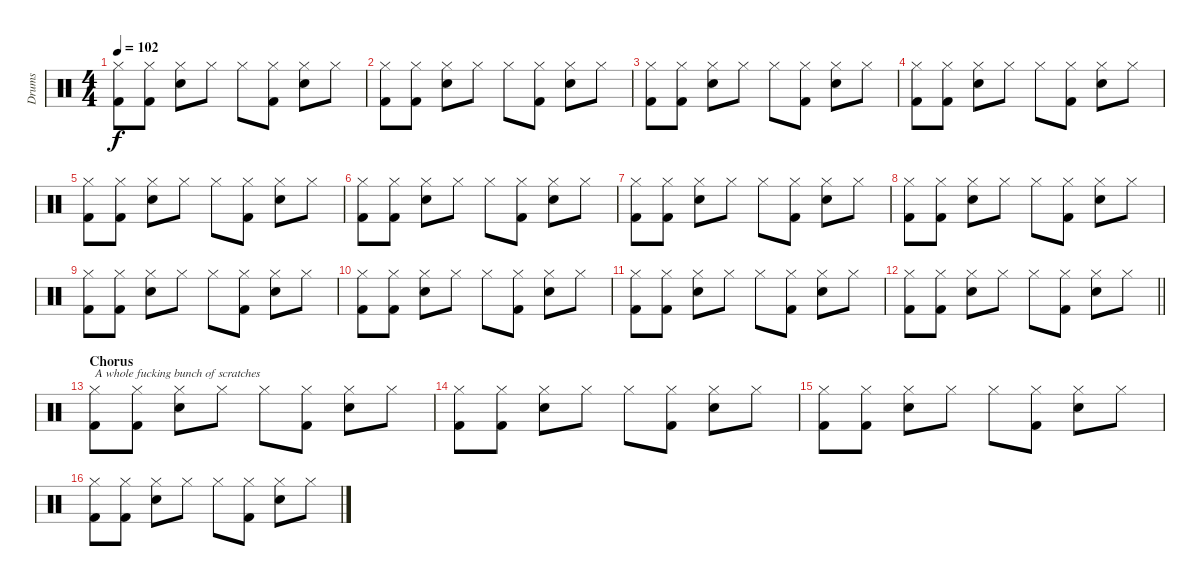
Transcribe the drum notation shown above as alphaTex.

\track ("Drums" "Drums") {instrument percussion}
\staff {score}
\articulation defaults
\ts (4 4)
\tempo 102
\clef neutral
\ks c
("Hi-Hat (closed)" "Kick (hit) 2").8{dy f} ("Hi-Hat (closed)" "Kick (hit) 2").8 ("Hi-Hat (closed)" "Snare (hit) 2").8 "Hi-Hat (closed)".8 "Hi-Hat (closed)".8 ("Hi-Hat (closed)" "Kick (hit) 2").8 ("Hi-Hat (closed)" "Snare (hit) 2").8 "Hi-Hat (closed)".8 |
("Hi-Hat (closed)" "Kick (hit) 2").8 ("Hi-Hat (closed)" "Kick (hit) 2").8 ("Hi-Hat (closed)" "Snare (hit) 2").8 "Hi-Hat (closed)".8 "Hi-Hat (closed)".8 ("Hi-Hat (closed)" "Kick (hit) 2").8 ("Hi-Hat (closed)" "Snare (hit) 2").8 "Hi-Hat (closed)".8 |
("Hi-Hat (closed)" "Kick (hit) 2").8 ("Hi-Hat (closed)" "Kick (hit) 2").8 ("Hi-Hat (closed)" "Snare (hit) 2").8 "Hi-Hat (closed)".8 "Hi-Hat (closed)".8 ("Hi-Hat (closed)" "Kick (hit) 2").8 ("Hi-Hat (closed)" "Snare (hit) 2").8 "Hi-Hat (closed)".8 |
("Hi-Hat (closed)" "Kick (hit) 2").8 ("Hi-Hat (closed)" "Kick (hit) 2").8 ("Hi-Hat (closed)" "Snare (hit) 2").8 "Hi-Hat (closed)".8 "Hi-Hat (closed)".8 ("Hi-Hat (closed)" "Kick (hit) 2").8 ("Hi-Hat (closed)" "Snare (hit) 2").8 "Hi-Hat (closed)".8 |
("Hi-Hat (closed)" "Kick (hit) 2").8 ("Hi-Hat (closed)" "Kick (hit) 2").8 ("Hi-Hat (closed)" "Snare (hit) 2").8 "Hi-Hat (closed)".8 "Hi-Hat (closed)".8 ("Hi-Hat (closed)" "Kick (hit) 2").8 ("Hi-Hat (closed)" "Snare (hit) 2").8 "Hi-Hat (closed)".8 |
("Hi-Hat (closed)" "Kick (hit) 2").8 ("Hi-Hat (closed)" "Kick (hit) 2").8 ("Hi-Hat (closed)" "Snare (hit) 2").8 "Hi-Hat (closed)".8 "Hi-Hat (closed)".8 ("Hi-Hat (closed)" "Kick (hit) 2").8 ("Hi-Hat (closed)" "Snare (hit) 2").8 "Hi-Hat (closed)".8 |
("Hi-Hat (closed)" "Kick (hit) 2").8 ("Hi-Hat (closed)" "Kick (hit) 2").8 ("Hi-Hat (closed)" "Snare (hit) 2").8 "Hi-Hat (closed)".8 "Hi-Hat (closed)".8 ("Hi-Hat (closed)" "Kick (hit) 2").8 ("Hi-Hat (closed)" "Snare (hit) 2").8 "Hi-Hat (closed)".8 |
("Hi-Hat (closed)" "Kick (hit) 2").8 ("Hi-Hat (closed)" "Kick (hit) 2").8 ("Hi-Hat (closed)" "Snare (hit) 2").8 "Hi-Hat (closed)".8 "Hi-Hat (closed)".8 ("Hi-Hat (closed)" "Kick (hit) 2").8 ("Hi-Hat (closed)" "Snare (hit) 2").8 "Hi-Hat (closed)".8 |
("Hi-Hat (closed)" "Kick (hit) 2").8 ("Hi-Hat (closed)" "Kick (hit) 2").8 ("Hi-Hat (closed)" "Snare (hit) 2").8 "Hi-Hat (closed)".8 "Hi-Hat (closed)".8 ("Hi-Hat (closed)" "Kick (hit) 2").8 ("Hi-Hat (closed)" "Snare (hit) 2").8 "Hi-Hat (closed)".8 |
("Hi-Hat (closed)" "Kick (hit) 2").8 ("Hi-Hat (closed)" "Kick (hit) 2").8 ("Hi-Hat (closed)" "Snare (hit) 2").8 "Hi-Hat (closed)".8 "Hi-Hat (closed)".8 ("Hi-Hat (closed)" "Kick (hit) 2").8 ("Hi-Hat (closed)" "Snare (hit) 2").8 "Hi-Hat (closed)".8 |
("Hi-Hat (closed)" "Kick (hit) 2").8 ("Hi-Hat (closed)" "Kick (hit) 2").8 ("Hi-Hat (closed)" "Snare (hit) 2").8 "Hi-Hat (closed)".8 "Hi-Hat (closed)".8 ("Hi-Hat (closed)" "Kick (hit) 2").8 ("Hi-Hat (closed)" "Snare (hit) 2").8 "Hi-Hat (closed)".8 |
\barLineRight lightlight
("Hi-Hat (closed)" "Kick (hit) 2").8 ("Hi-Hat (closed)" "Kick (hit) 2").8 ("Hi-Hat (closed)" "Snare (hit) 2").8 "Hi-Hat (closed)".8 "Hi-Hat (closed)".8 ("Hi-Hat (closed)" "Kick (hit) 2").8 ("Hi-Hat (closed)" "Snare (hit) 2").8 "Hi-Hat (closed)".8 |
\section ("" "Chorus")
("Hi-Hat (closed)" "Kick (hit) 2").8{txt "A whole fucking bunch of scratches"} ("Hi-Hat (closed)" "Kick (hit) 2").8 ("Hi-Hat (closed)" "Snare (hit) 2").8 "Hi-Hat (closed)".8 "Hi-Hat (closed)".8 ("Hi-Hat (closed)" "Kick (hit) 2").8 ("Hi-Hat (closed)" "Snare (hit) 2").8 "Hi-Hat (closed)".8 |
("Hi-Hat (closed)" "Kick (hit) 2").8 ("Hi-Hat (closed)" "Kick (hit) 2").8 ("Hi-Hat (closed)" "Snare (hit) 2").8 "Hi-Hat (closed)".8 "Hi-Hat (closed)".8 ("Hi-Hat (closed)" "Kick (hit) 2").8 ("Hi-Hat (closed)" "Snare (hit) 2").8 "Hi-Hat (closed)".8 |
("Hi-Hat (closed)" "Kick (hit) 2").8 ("Hi-Hat (closed)" "Kick (hit) 2").8 ("Hi-Hat (closed)" "Snare (hit) 2").8 "Hi-Hat (closed)".8 "Hi-Hat (closed)".8 ("Hi-Hat (closed)" "Kick (hit) 2").8 ("Hi-Hat (closed)" "Snare (hit) 2").8 "Hi-Hat (closed)".8 |
("Hi-Hat (closed)" "Kick (hit) 2").8 ("Hi-Hat (closed)" "Kick (hit) 2").8 ("Hi-Hat (closed)" "Snare (hit) 2").8 "Hi-Hat (closed)".8 "Hi-Hat (closed)".8 ("Hi-Hat (closed)" "Kick (hit) 2").8 ("Hi-Hat (closed)" "Snare (hit) 2").8 "Hi-Hat (closed)".8
